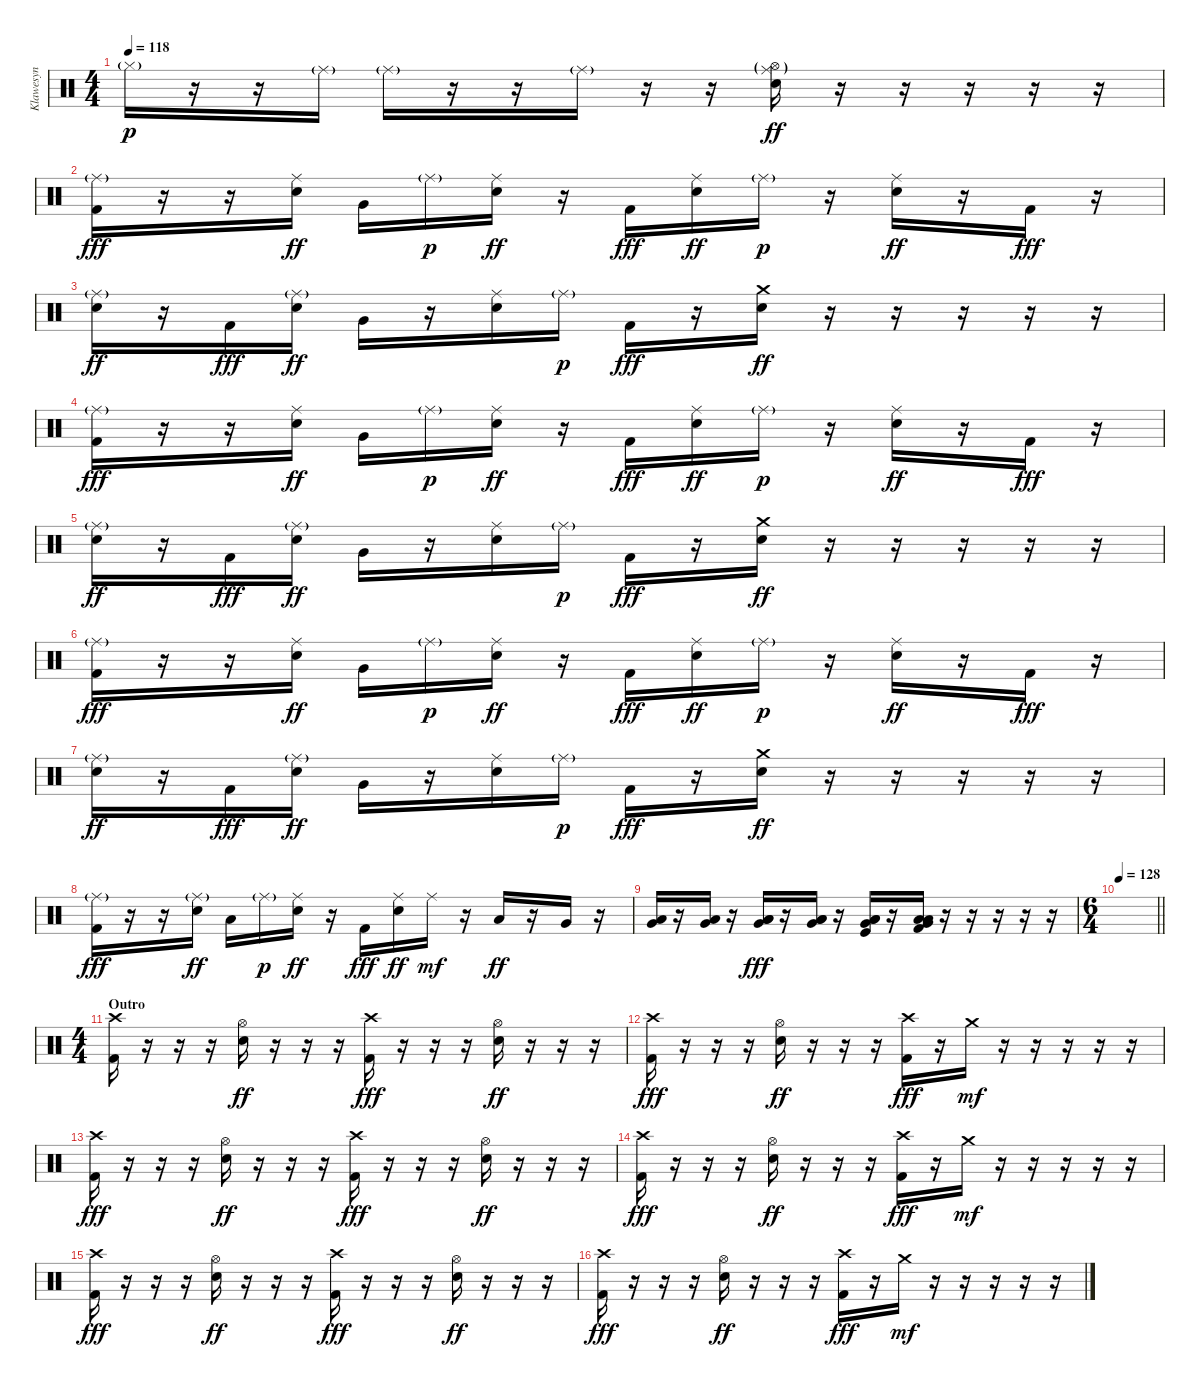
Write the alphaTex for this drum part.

\track ("Klawesyn" "Klawesyn") {instrument percussion}
\staff {score}
\articulation defaults
\ts (4 4)
\tempo 118
\clef neutral
\ks c "Hi-Hat (closed)"{g}.16{dy p volume 16}
r.16 r.16 "Ride (middle)"{g}.16 "Ride (middle)"{g}.16 r.16 r.16 "Ride (middle)"{g}.16 r.16 r.16 ("Ride (middle)"{g} "Hi-Hat (open)"{g} "Electric Snare (hit)").16{dy ff} r.16 r.16 r.16 r.16 r.16 |
("Ride (middle)"{g} "Kick (hit) 2").16{dy fff} r.16 r.16 ("Ride (middle)" "Electric Snare (hit)").16{dy ff} "Very Low Tom (hit)".16 "Ride (middle)"{g}.16{dy p} ("Ride (middle)" "Electric Snare (hit)").16{dy ff} r.16 "Kick (hit) 2".16{dy fff} ("Ride (middle)" "Electric Snare (hit)").16{dy ff} "Ride (middle)"{g}.16{dy p} r.16 ("Ride (middle)" "Electric Snare (hit)").16{dy ff} r.16 "Kick (hit) 2".16{dy fff} r.16 |
("Ride (middle)"{g} "Electric Snare (hit)").16{dy ff} r.16 "Kick (hit) 2".16{dy fff} ("Ride (middle)"{g} "Electric Snare (hit)").16{dy ff} "Very Low Tom (hit)".16 r.16 ("Ride (middle)" "Electric Snare (hit)").16 "Ride (middle)"{g}.16{dy p} "Kick (hit) 2".16{dy fff} r.16 ("Crash medium (hit)" "Electric Snare (hit)").16{dy ff} r.16 r.16 r.16 r.16 r.16 |
("Ride (middle)"{g} "Kick (hit) 2").16{dy fff} r.16 r.16 ("Ride (middle)" "Electric Snare (hit)").16{dy ff} "Very Low Tom (hit)".16 "Ride (middle)"{g}.16{dy p} ("Ride (middle)" "Electric Snare (hit)").16{dy ff} r.16 "Kick (hit) 2".16{dy fff} ("Ride (middle)" "Electric Snare (hit)").16{dy ff} "Ride (middle)"{g}.16{dy p} r.16 ("Ride (middle)" "Electric Snare (hit)").16{dy ff} r.16 "Kick (hit) 2".16{dy fff} r.16 |
("Ride (middle)"{g} "Electric Snare (hit)").16{dy ff} r.16 "Kick (hit) 2".16{dy fff} ("Ride (middle)"{g} "Electric Snare (hit)").16{dy ff} "Very Low Tom (hit)".16 r.16 ("Ride (middle)" "Electric Snare (hit)").16 "Ride (middle)"{g}.16{dy p} "Kick (hit) 2".16{dy fff} r.16 ("Crash medium (hit)" "Electric Snare (hit)").16{dy ff} r.16 r.16 r.16 r.16 r.16 |
("Ride (middle)"{g} "Kick (hit) 2").16{dy fff} r.16 r.16 ("Ride (middle)" "Electric Snare (hit)").16{dy ff} "Very Low Tom (hit)".16 "Ride (middle)"{g}.16{dy p} ("Ride (middle)" "Electric Snare (hit)").16{dy ff} r.16 "Kick (hit) 2".16{dy fff} ("Ride (middle)" "Electric Snare (hit)").16{dy ff} "Ride (middle)"{g}.16{dy p} r.16 ("Ride (middle)" "Electric Snare (hit)").16{dy ff} r.16 "Kick (hit) 2".16{dy fff} r.16 |
("Ride (middle)"{g} "Electric Snare (hit)").16{dy ff} r.16 "Kick (hit) 2".16{dy fff} ("Ride (middle)"{g} "Electric Snare (hit)").16{dy ff} "Very Low Tom (hit)".16 r.16 ("Ride (middle)" "Electric Snare (hit)").16 "Ride (middle)"{g}.16{dy p} "Kick (hit) 2".16{dy fff} r.16 ("Crash medium (hit)" "Electric Snare (hit)").16{dy ff} r.16 r.16 r.16 r.16 r.16 |
("Ride (middle)"{g} "Kick (hit) 2").16{dy fff} r.16 r.16 ("Ride (middle)"{g} "Electric Snare (hit)").16{dy ff} "Low Floor Tom (hit)".16 "Ride (middle)"{g}.16{dy p} ("Ride (middle)" "Electric Snare (hit)").16{dy ff} r.16 "Kick (hit) 2".16{dy fff} ("Ride (middle)" "Electric Snare (hit)").16{dy ff} "Ride (middle)".16{dy mf} r.16 "Low Tom (hit)".16{dy ff} r.16 "Very Low Tom (hit)".16 r.16 |
("Low Tom (hit)" "Very Low Tom (hit)").16 r.16 ("Low Tom (hit)" "Very Low Tom (hit)").16 r.16 ("Low Tom (hit)" "Very Low Tom (hit)" "Low Floor Tom (hit)").16{dy fff} r.16 ("Low Tom (hit)" "Very Low Tom (hit)" "Low Floor Tom (hit)").16 r.16 ("Low Tom (hit)" "Very Low Tom (hit)" "Low Floor Tom (hit)" "Kick (hit)").16 r.16 ("Low Tom (hit)" "Very Low Tom (hit)" "Low Floor Tom (hit)" "Kick (hit) 2").16 r.16 r.16 r.16 r.16 r.16 |
\ts (6 4)
\tempo 128
\barLineRight lightlight
|
\ts (4 4)
\section ("" "Outro")
("Crash high (hit)" "Kick (hit) 2").16 r.16 r.16 r.16 ("Hi-Hat (open)" "Electric Snare (hit)").16{dy ff} r.16 r.16 r.16 ("Crash high (hit)" "Kick (hit) 2").16{dy fff} r.16 r.16 r.16 ("Hi-Hat (open)" "Electric Snare (hit)").16{dy ff} r.16 r.16 r.16 |
("Crash high (hit)" "Kick (hit) 2").16{dy fff} r.16 r.16 r.16 ("Hi-Hat (open)" "Electric Snare (hit)").16{dy ff} r.16 r.16 r.16 ("Crash high (hit)" "Kick (hit) 2").16{dy fff} r.16 "Crash medium (hit)".16{dy mf} r.16 r.16 r.16 r.16 r.16 |
("Crash high (hit)" "Kick (hit) 2").16{dy fff} r.16 r.16 r.16 ("Hi-Hat (open)" "Electric Snare (hit)").16{dy ff} r.16 r.16 r.16 ("Crash high (hit)" "Kick (hit) 2").16{dy fff} r.16 r.16 r.16 ("Hi-Hat (open)" "Electric Snare (hit)").16{dy ff} r.16 r.16 r.16 |
("Crash high (hit)" "Kick (hit) 2").16{dy fff} r.16 r.16 r.16 ("Hi-Hat (open)" "Electric Snare (hit)").16{dy ff} r.16 r.16 r.16 ("Crash high (hit)" "Kick (hit) 2").16{dy fff} r.16 "Crash medium (hit)".16{dy mf} r.16 r.16 r.16 r.16 r.16 |
("Crash high (hit)" "Kick (hit) 2").16{dy fff} r.16 r.16 r.16 ("Hi-Hat (open)" "Electric Snare (hit)").16{dy ff} r.16 r.16 r.16 ("Crash high (hit)" "Kick (hit) 2").16{dy fff} r.16 r.16 r.16 ("Hi-Hat (open)" "Electric Snare (hit)").16{dy ff} r.16 r.16 r.16 |
("Crash high (hit)" "Kick (hit) 2").16{dy fff} r.16 r.16 r.16 ("Hi-Hat (open)" "Electric Snare (hit)").16{dy ff} r.16 r.16 r.16 ("Crash high (hit)" "Kick (hit) 2").16{dy fff} r.16 "Crash medium (hit)".16{dy mf} r.16 r.16 r.16 r.16 r.16
